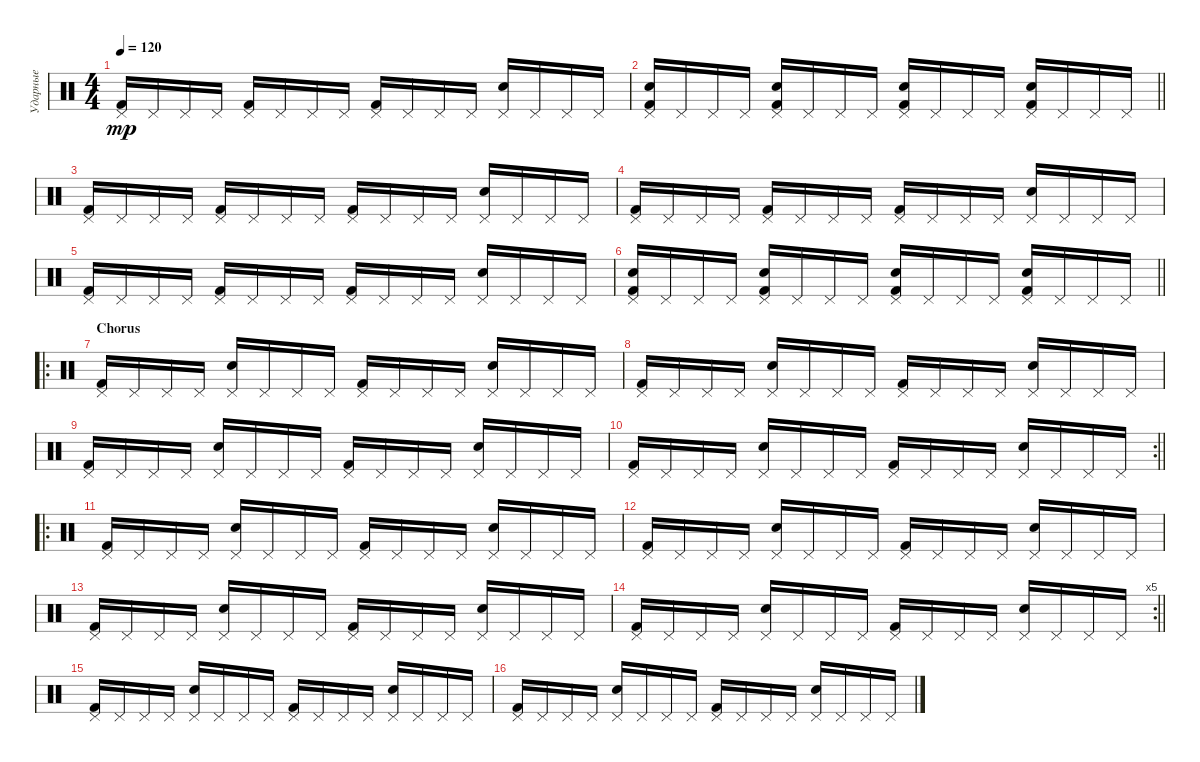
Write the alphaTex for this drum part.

\track ("Ударные" "Ударные") {instrument percussion}
\staff {score}
\articulation defaults
\ts (4 4)
\tempo 120
\clef neutral
\ks c
("Pedal Hi-Hat (hit)" "Kick (hit) 2").16{dy mp} "Pedal Hi-Hat (hit)".16 "Pedal Hi-Hat (hit)".16 "Pedal Hi-Hat (hit)".16 ("Pedal Hi-Hat (hit)" "Kick (hit) 2").16 "Pedal Hi-Hat (hit)".16 "Pedal Hi-Hat (hit)".16 "Pedal Hi-Hat (hit)".16 ("Pedal Hi-Hat (hit)" "Kick (hit) 2").16 "Pedal Hi-Hat (hit)".16 "Pedal Hi-Hat (hit)".16 "Pedal Hi-Hat (hit)".16 ("Pedal Hi-Hat (hit)" "Snare (hit) 2").16 "Pedal Hi-Hat (hit)".16 "Pedal Hi-Hat (hit)".16 "Pedal Hi-Hat (hit)".16 |
\barLineRight lightlight
("Pedal Hi-Hat (hit)" "Snare (hit) 2" "Kick (hit) 2").16 "Pedal Hi-Hat (hit)".16 "Pedal Hi-Hat (hit)".16 "Pedal Hi-Hat (hit)".16 ("Pedal Hi-Hat (hit)" "Snare (hit) 2" "Kick (hit) 2").16 "Pedal Hi-Hat (hit)".16 "Pedal Hi-Hat (hit)".16 "Pedal Hi-Hat (hit)".16 ("Pedal Hi-Hat (hit)" "Snare (hit) 2" "Kick (hit) 2").16 "Pedal Hi-Hat (hit)".16 "Pedal Hi-Hat (hit)".16 "Pedal Hi-Hat (hit)".16 ("Pedal Hi-Hat (hit)" "Snare (hit) 2" "Kick (hit) 2").16 "Pedal Hi-Hat (hit)".16 "Pedal Hi-Hat (hit)".16 "Pedal Hi-Hat (hit)".16 |
("Pedal Hi-Hat (hit)" "Kick (hit) 2").16 "Pedal Hi-Hat (hit)".16 "Pedal Hi-Hat (hit)".16 "Pedal Hi-Hat (hit)".16 ("Pedal Hi-Hat (hit)" "Kick (hit) 2").16 "Pedal Hi-Hat (hit)".16 "Pedal Hi-Hat (hit)".16 "Pedal Hi-Hat (hit)".16 ("Pedal Hi-Hat (hit)" "Kick (hit) 2").16 "Pedal Hi-Hat (hit)".16 "Pedal Hi-Hat (hit)".16 "Pedal Hi-Hat (hit)".16 ("Pedal Hi-Hat (hit)" "Snare (hit) 2").16 "Pedal Hi-Hat (hit)".16 "Pedal Hi-Hat (hit)".16 "Pedal Hi-Hat (hit)".16 |
("Pedal Hi-Hat (hit)" "Kick (hit) 2").16 "Pedal Hi-Hat (hit)".16 "Pedal Hi-Hat (hit)".16 "Pedal Hi-Hat (hit)".16 ("Pedal Hi-Hat (hit)" "Kick (hit) 2").16 "Pedal Hi-Hat (hit)".16 "Pedal Hi-Hat (hit)".16 "Pedal Hi-Hat (hit)".16 ("Pedal Hi-Hat (hit)" "Kick (hit) 2").16 "Pedal Hi-Hat (hit)".16 "Pedal Hi-Hat (hit)".16 "Pedal Hi-Hat (hit)".16 ("Pedal Hi-Hat (hit)" "Snare (hit) 2").16 "Pedal Hi-Hat (hit)".16 "Pedal Hi-Hat (hit)".16 "Pedal Hi-Hat (hit)".16 |
("Pedal Hi-Hat (hit)" "Kick (hit) 2").16 "Pedal Hi-Hat (hit)".16 "Pedal Hi-Hat (hit)".16 "Pedal Hi-Hat (hit)".16 ("Pedal Hi-Hat (hit)" "Kick (hit) 2").16 "Pedal Hi-Hat (hit)".16 "Pedal Hi-Hat (hit)".16 "Pedal Hi-Hat (hit)".16 ("Pedal Hi-Hat (hit)" "Kick (hit) 2").16 "Pedal Hi-Hat (hit)".16 "Pedal Hi-Hat (hit)".16 "Pedal Hi-Hat (hit)".16 ("Pedal Hi-Hat (hit)" "Snare (hit) 2").16 "Pedal Hi-Hat (hit)".16 "Pedal Hi-Hat (hit)".16 "Pedal Hi-Hat (hit)".16 |
\barLineRight lightlight
("Pedal Hi-Hat (hit)" "Snare (hit) 2" "Kick (hit) 2").16 "Pedal Hi-Hat (hit)".16 "Pedal Hi-Hat (hit)".16 "Pedal Hi-Hat (hit)".16 ("Pedal Hi-Hat (hit)" "Snare (hit) 2" "Kick (hit) 2").16 "Pedal Hi-Hat (hit)".16 "Pedal Hi-Hat (hit)".16 "Pedal Hi-Hat (hit)".16 ("Pedal Hi-Hat (hit)" "Snare (hit) 2" "Kick (hit) 2").16 "Pedal Hi-Hat (hit)".16 "Pedal Hi-Hat (hit)".16 "Pedal Hi-Hat (hit)".16 ("Pedal Hi-Hat (hit)" "Snare (hit) 2" "Kick (hit) 2").16 "Pedal Hi-Hat (hit)".16 "Pedal Hi-Hat (hit)".16 "Pedal Hi-Hat (hit)".16 |
\ro
\section ("" "Chorus")
("Pedal Hi-Hat (hit)" "Kick (hit) 2").16 "Pedal Hi-Hat (hit)".16 "Pedal Hi-Hat (hit)".16 "Pedal Hi-Hat (hit)".16 ("Pedal Hi-Hat (hit)" "Snare (hit) 2").16 "Pedal Hi-Hat (hit)".16 "Pedal Hi-Hat (hit)".16 "Pedal Hi-Hat (hit)".16 ("Pedal Hi-Hat (hit)" "Kick (hit) 2").16 "Pedal Hi-Hat (hit)".16 "Pedal Hi-Hat (hit)".16 "Pedal Hi-Hat (hit)".16 ("Pedal Hi-Hat (hit)" "Snare (hit) 2").16 "Pedal Hi-Hat (hit)".16 "Pedal Hi-Hat (hit)".16 "Pedal Hi-Hat (hit)".16 |
("Pedal Hi-Hat (hit)" "Kick (hit) 2").16 "Pedal Hi-Hat (hit)".16 "Pedal Hi-Hat (hit)".16 "Pedal Hi-Hat (hit)".16 ("Pedal Hi-Hat (hit)" "Snare (hit) 2").16 "Pedal Hi-Hat (hit)".16 "Pedal Hi-Hat (hit)".16 "Pedal Hi-Hat (hit)".16 ("Pedal Hi-Hat (hit)" "Kick (hit) 2").16 "Pedal Hi-Hat (hit)".16 "Pedal Hi-Hat (hit)".16 "Pedal Hi-Hat (hit)".16 ("Pedal Hi-Hat (hit)" "Snare (hit) 2").16 "Pedal Hi-Hat (hit)".16 "Pedal Hi-Hat (hit)".16 "Pedal Hi-Hat (hit)".16 |
("Pedal Hi-Hat (hit)" "Kick (hit) 2").16 "Pedal Hi-Hat (hit)".16 "Pedal Hi-Hat (hit)".16 "Pedal Hi-Hat (hit)".16 ("Pedal Hi-Hat (hit)" "Snare (hit) 2").16 "Pedal Hi-Hat (hit)".16 "Pedal Hi-Hat (hit)".16 "Pedal Hi-Hat (hit)".16 ("Pedal Hi-Hat (hit)" "Kick (hit) 2").16 "Pedal Hi-Hat (hit)".16 "Pedal Hi-Hat (hit)".16 "Pedal Hi-Hat (hit)".16 ("Pedal Hi-Hat (hit)" "Snare (hit) 2").16 "Pedal Hi-Hat (hit)".16 "Pedal Hi-Hat (hit)".16 "Pedal Hi-Hat (hit)".16 |
\rc 2
\barLineRight lightlight
("Pedal Hi-Hat (hit)" "Kick (hit) 2").16 "Pedal Hi-Hat (hit)".16 "Pedal Hi-Hat (hit)".16 "Pedal Hi-Hat (hit)".16 ("Pedal Hi-Hat (hit)" "Snare (hit) 2").16 "Pedal Hi-Hat (hit)".16 "Pedal Hi-Hat (hit)".16 "Pedal Hi-Hat (hit)".16 ("Pedal Hi-Hat (hit)" "Kick (hit) 2").16 "Pedal Hi-Hat (hit)".16 "Pedal Hi-Hat (hit)".16 "Pedal Hi-Hat (hit)".16 ("Pedal Hi-Hat (hit)" "Snare (hit) 2").16 "Pedal Hi-Hat (hit)".16 "Pedal Hi-Hat (hit)".16 "Pedal Hi-Hat (hit)".16 |
\ro
("Pedal Hi-Hat (hit)" "Kick (hit) 2").16 "Pedal Hi-Hat (hit)".16 "Pedal Hi-Hat (hit)".16 "Pedal Hi-Hat (hit)".16 ("Pedal Hi-Hat (hit)" "Snare (hit) 2").16 "Pedal Hi-Hat (hit)".16 "Pedal Hi-Hat (hit)".16 "Pedal Hi-Hat (hit)".16 ("Pedal Hi-Hat (hit)" "Kick (hit) 2").16 "Pedal Hi-Hat (hit)".16 "Pedal Hi-Hat (hit)".16 "Pedal Hi-Hat (hit)".16 ("Pedal Hi-Hat (hit)" "Snare (hit) 2").16 "Pedal Hi-Hat (hit)".16 "Pedal Hi-Hat (hit)".16 "Pedal Hi-Hat (hit)".16 |
("Pedal Hi-Hat (hit)" "Kick (hit) 2").16 "Pedal Hi-Hat (hit)".16 "Pedal Hi-Hat (hit)".16 "Pedal Hi-Hat (hit)".16 ("Pedal Hi-Hat (hit)" "Snare (hit) 2").16 "Pedal Hi-Hat (hit)".16 "Pedal Hi-Hat (hit)".16 "Pedal Hi-Hat (hit)".16 ("Pedal Hi-Hat (hit)" "Kick (hit) 2").16 "Pedal Hi-Hat (hit)".16 "Pedal Hi-Hat (hit)".16 "Pedal Hi-Hat (hit)".16 ("Pedal Hi-Hat (hit)" "Snare (hit) 2").16 "Pedal Hi-Hat (hit)".16 "Pedal Hi-Hat (hit)".16 "Pedal Hi-Hat (hit)".16 |
("Pedal Hi-Hat (hit)" "Kick (hit) 2").16 "Pedal Hi-Hat (hit)".16 "Pedal Hi-Hat (hit)".16 "Pedal Hi-Hat (hit)".16 ("Pedal Hi-Hat (hit)" "Snare (hit) 2").16 "Pedal Hi-Hat (hit)".16 "Pedal Hi-Hat (hit)".16 "Pedal Hi-Hat (hit)".16 ("Pedal Hi-Hat (hit)" "Kick (hit) 2").16 "Pedal Hi-Hat (hit)".16 "Pedal Hi-Hat (hit)".16 "Pedal Hi-Hat (hit)".16 ("Pedal Hi-Hat (hit)" "Snare (hit) 2").16 "Pedal Hi-Hat (hit)".16 "Pedal Hi-Hat (hit)".16 "Pedal Hi-Hat (hit)".16 |
\rc 5
\barLineRight lightlight
("Pedal Hi-Hat (hit)" "Kick (hit) 2").16 "Pedal Hi-Hat (hit)".16 "Pedal Hi-Hat (hit)".16 "Pedal Hi-Hat (hit)".16 ("Pedal Hi-Hat (hit)" "Snare (hit) 2").16 "Pedal Hi-Hat (hit)".16 "Pedal Hi-Hat (hit)".16 "Pedal Hi-Hat (hit)".16 ("Pedal Hi-Hat (hit)" "Kick (hit) 2").16 "Pedal Hi-Hat (hit)".16 "Pedal Hi-Hat (hit)".16 "Pedal Hi-Hat (hit)".16 ("Pedal Hi-Hat (hit)" "Snare (hit) 2").16 "Pedal Hi-Hat (hit)".16 "Pedal Hi-Hat (hit)".16 "Pedal Hi-Hat (hit)".16 |
("Pedal Hi-Hat (hit)" "Kick (hit) 2").16 "Pedal Hi-Hat (hit)".16 "Pedal Hi-Hat (hit)".16 "Pedal Hi-Hat (hit)".16 ("Pedal Hi-Hat (hit)" "Snare (hit) 2").16 "Pedal Hi-Hat (hit)".16 "Pedal Hi-Hat (hit)".16 "Pedal Hi-Hat (hit)".16 ("Pedal Hi-Hat (hit)" "Kick (hit) 2").16 "Pedal Hi-Hat (hit)".16 "Pedal Hi-Hat (hit)".16 "Pedal Hi-Hat (hit)".16 ("Pedal Hi-Hat (hit)" "Snare (hit) 2").16 "Pedal Hi-Hat (hit)".16 "Pedal Hi-Hat (hit)".16 "Pedal Hi-Hat (hit)".16 |
("Pedal Hi-Hat (hit)" "Kick (hit) 2").16 "Pedal Hi-Hat (hit)".16 "Pedal Hi-Hat (hit)".16 "Pedal Hi-Hat (hit)".16 ("Pedal Hi-Hat (hit)" "Snare (hit) 2").16 "Pedal Hi-Hat (hit)".16 "Pedal Hi-Hat (hit)".16 "Pedal Hi-Hat (hit)".16 ("Pedal Hi-Hat (hit)" "Kick (hit) 2").16 "Pedal Hi-Hat (hit)".16 "Pedal Hi-Hat (hit)".16 "Pedal Hi-Hat (hit)".16 ("Pedal Hi-Hat (hit)" "Snare (hit) 2").16 "Pedal Hi-Hat (hit)".16 "Pedal Hi-Hat (hit)".16 "Pedal Hi-Hat (hit)".16
